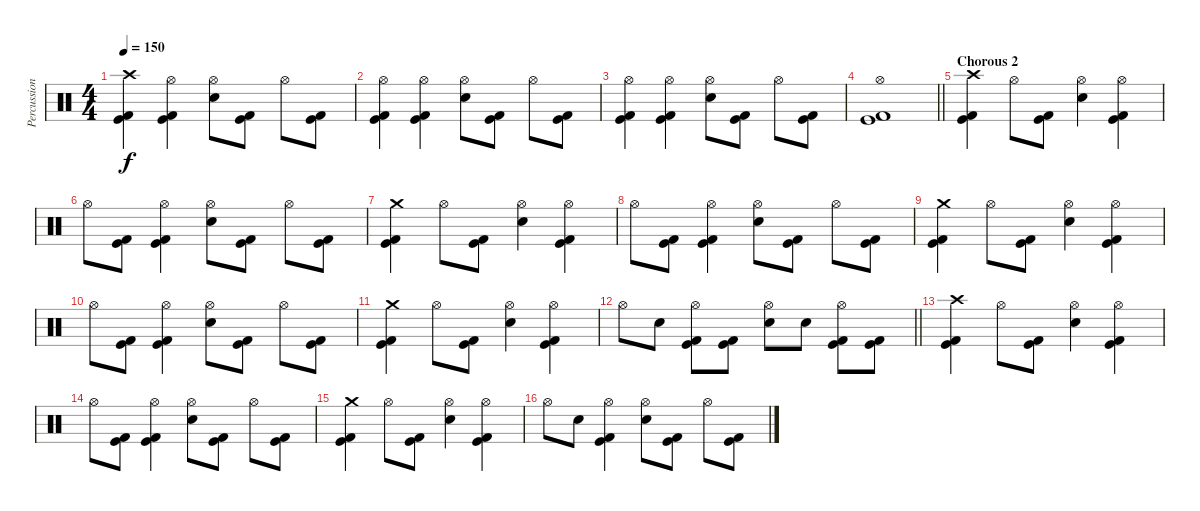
\track ("Percussion" "Percussion") {instrument percussion}
\staff {score}
\articulation defaults
\ts (4 4)
\tempo 150
\clef neutral
\ks c
("Crash high (hit)" "Kick (hit)" "Kick (hit) 2").4{dy f} ("Hi-Hat (open)" "Kick (hit)" "Kick (hit) 2").4 ("Hi-Hat (open)" "Electric Snare (hit)").8 ("Kick (hit)" "Kick (hit) 2").8 "Hi-Hat (open)".8 ("Kick (hit)" "Kick (hit) 2").8 |
("Hi-Hat (open)" "Kick (hit)" "Kick (hit) 2").4 ("Hi-Hat (open)" "Kick (hit)" "Kick (hit) 2").4 ("Hi-Hat (open)" "Electric Snare (hit)").8 ("Kick (hit)" "Kick (hit) 2").8 "Hi-Hat (open)".8 ("Kick (hit)" "Kick (hit) 2").8 |
("Hi-Hat (open)" "Kick (hit)" "Kick (hit) 2").4 ("Hi-Hat (open)" "Kick (hit)" "Kick (hit) 2").4 ("Hi-Hat (open)" "Electric Snare (hit)").8 ("Kick (hit)" "Kick (hit) 2").8 "Hi-Hat (open)".8 ("Kick (hit)" "Kick (hit) 2").8 |
\barLineRight lightlight
("Hi-Hat (open)" "Kick (hit)" "Kick (hit) 2").1 |
\section ("" "Chorous 2")
("Crash high (hit)" "Kick (hit)" "Kick (hit) 2").4 "Hi-Hat (open)".8 ("Kick (hit)" "Kick (hit) 2").8 ("Hi-Hat (open)" "Electric Snare (hit)").4 ("Hi-Hat (open)" "Kick (hit)" "Kick (hit) 2").4 |
"Hi-Hat (open)".8 ("Kick (hit)" "Kick (hit) 2").8 ("Hi-Hat (open)" "Kick (hit)" "Kick (hit) 2").4 ("Hi-Hat (open)" "Electric Snare (hit)").8 ("Kick (hit)" "Kick (hit) 2").8 "Hi-Hat (open)".8 ("Kick (hit)" "Kick (hit) 2").8 |
("Crash medium (hit)" "Kick (hit)" "Kick (hit) 2").4 "Hi-Hat (open)".8 ("Kick (hit)" "Kick (hit) 2").8 ("Hi-Hat (open)" "Electric Snare (hit)").4 ("Hi-Hat (open)" "Kick (hit)" "Kick (hit) 2").4 |
"Hi-Hat (open)".8 ("Kick (hit)" "Kick (hit) 2").8 ("Hi-Hat (open)" "Kick (hit)" "Kick (hit) 2").4 ("Hi-Hat (open)" "Electric Snare (hit)").8 ("Kick (hit)" "Kick (hit) 2").8 "Hi-Hat (open)".8 ("Kick (hit)" "Kick (hit) 2").8 |
("Crash medium (hit)" "Kick (hit)" "Kick (hit) 2").4 "Hi-Hat (open)".8 ("Kick (hit)" "Kick (hit) 2").8 ("Hi-Hat (open)" "Electric Snare (hit)").4 ("Hi-Hat (open)" "Kick (hit)" "Kick (hit) 2").4 |
"Hi-Hat (open)".8 ("Kick (hit)" "Kick (hit) 2").8 ("Hi-Hat (open)" "Kick (hit)" "Kick (hit) 2").4 ("Hi-Hat (open)" "Electric Snare (hit)").8 ("Kick (hit)" "Kick (hit) 2").8 "Hi-Hat (open)".8 ("Kick (hit)" "Kick (hit) 2").8 |
("Crash medium (hit)" "Kick (hit)" "Kick (hit) 2").4 "Hi-Hat (open)".8 ("Kick (hit)" "Kick (hit) 2").8 ("Hi-Hat (open)" "Electric Snare (hit)").4 ("Hi-Hat (open)" "Kick (hit)" "Kick (hit) 2").4 |
\barLineRight lightlight "Hi-Hat (open)".8 "Electric Snare (hit)".8
("Hi-Hat (open)" "Kick (hit)" "Kick (hit) 2").8 ("Kick (hit)" "Kick (hit) 2").8 ("Hi-Hat (open)" "Electric Snare (hit)").8 "Electric Snare (hit)".8 ("Hi-Hat (open)" "Kick (hit)" "Kick (hit) 2").8 ("Kick (hit)" "Kick (hit) 2").8 |
\section ("" "")
("Crash high (hit)" "Kick (hit)" "Kick (hit) 2").4 "Hi-Hat (open)".8 ("Kick (hit)" "Kick (hit) 2").8 ("Hi-Hat (open)" "Electric Snare (hit)").4 ("Hi-Hat (open)" "Kick (hit)" "Kick (hit) 2").4 |
"Hi-Hat (open)".8 ("Kick (hit)" "Kick (hit) 2").8 ("Hi-Hat (open)" "Kick (hit)" "Kick (hit) 2").4 ("Hi-Hat (open)" "Electric Snare (hit)").8 ("Kick (hit)" "Kick (hit) 2").8 "Hi-Hat (open)".8 ("Kick (hit)" "Kick (hit) 2").8 |
("Crash medium (hit)" "Kick (hit)" "Kick (hit) 2").4 "Hi-Hat (open)".8 ("Kick (hit)" "Kick (hit) 2").8 ("Hi-Hat (open)" "Electric Snare (hit)").4 ("Hi-Hat (open)" "Kick (hit)" "Kick (hit) 2").4 |
"Hi-Hat (open)".8 "Electric Snare (hit)".8 ("Hi-Hat (open)" "Kick (hit)" "Kick (hit) 2").4 ("Hi-Hat (open)" "Electric Snare (hit)").8 ("Kick (hit)" "Kick (hit) 2").8 "Hi-Hat (open)".8 ("Kick (hit)" "Kick (hit) 2").8
